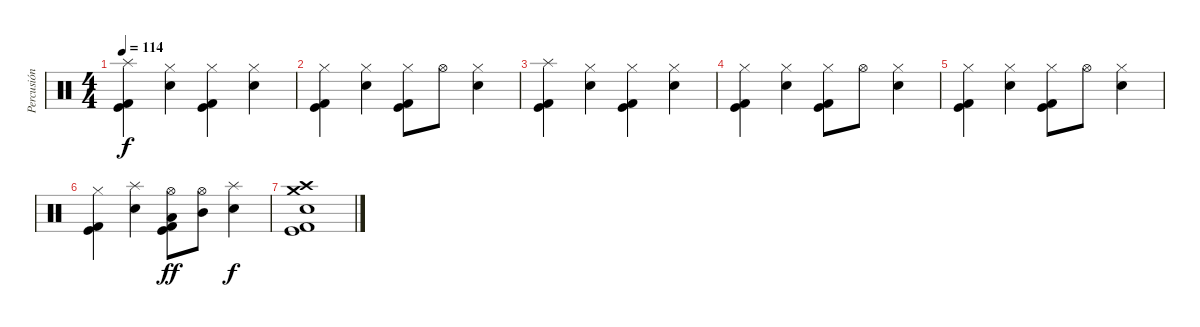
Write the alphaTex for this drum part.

\track ("Percusión" "Percusión") {instrument percussion}
\staff {score}
\articulation defaults
\ts (4 4)
\tempo 114
\clef neutral
\ks c
("Splash (hit)" "Kick (hit) 2" "Kick (hit)").4{dy f} ("Hi-Hat (closed)" "Electric Snare (hit)").4 ("Hi-Hat (closed)" "Kick (hit) 2" "Kick (hit)").4 ("Hi-Hat (closed)" "Electric Snare (hit)").4 |
("Hi-Hat (closed)" "Kick (hit) 2" "Kick (hit)").4 ("Hi-Hat (closed)" "Electric Snare (hit)").4 ("Hi-Hat (closed)" "Kick (hit) 2" "Kick (hit)").8 "Hi-Hat (open)".8 ("Hi-Hat (closed)" "Electric Snare (hit)").4 |
("Splash (hit)" "Kick (hit) 2" "Kick (hit)").4 ("Hi-Hat (closed)" "Electric Snare (hit)").4 ("Hi-Hat (closed)" "Kick (hit) 2" "Kick (hit)").4 ("Hi-Hat (closed)" "Electric Snare (hit)").4 |
("Hi-Hat (closed)" "Kick (hit) 2" "Kick (hit)").4 ("Hi-Hat (closed)" "Electric Snare (hit)").4 ("Hi-Hat (closed)" "Kick (hit) 2" "Kick (hit)").8 "Hi-Hat (open)".8 ("Hi-Hat (closed)" "Electric Snare (hit)").4 |
("Hi-Hat (closed)" "Kick (hit) 2" "Kick (hit)").4 ("Hi-Hat (closed)" "Electric Snare (hit)").4 ("Hi-Hat (closed)" "Kick (hit) 2" "Kick (hit)").8 "Hi-Hat (open)".8 ("Hi-Hat (closed)" "Electric Snare (hit)").4 |
("Hi-Hat (closed)" "Kick (hit) 2" "Kick (hit)").4 ("Splash (hit)" "Electric Snare (hit)").4 ("Hi-Hat (open)" "Low Tom (hit)" "Kick (hit) 2" "Kick (hit)").8{dy ff} ("Hi-Hat (open)" "Mid Tom (hit)").8 ("Splash (hit)" "Electric Snare (hit)").4{dy f} |
("Crash high (hit)" "Crash medium (hit)" "Electric Snare (hit)" "Kick (hit)" "Kick (hit) 2").1
